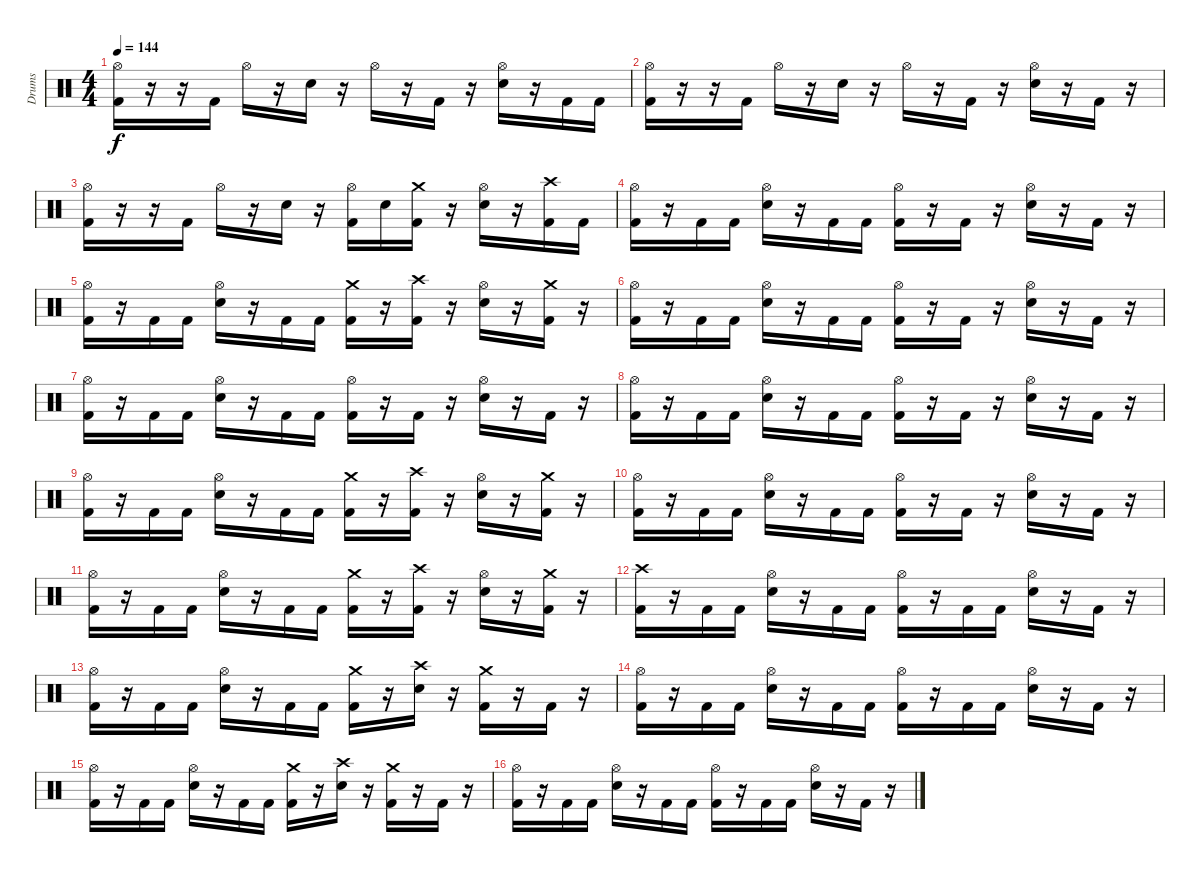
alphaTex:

\track ("Drums" "Drums") {instrument percussion}
\staff {score}
\articulation defaults
\ts (4 4)
\tempo 144
\clef neutral
\ks c
("Hi-Hat (open)" "Kick (hit) 2").16{dy f} r.16 r.16 "Kick (hit) 2".16 "Hi-Hat (open)".16 r.16 "Snare (hit) 2".16 r.16 "Hi-Hat (open)".16 r.16 "Kick (hit) 2".16 r.16 ("Hi-Hat (open)" "Snare (hit) 2").16 r.16 "Kick (hit) 2".16 "Kick (hit) 2".16 |
("Hi-Hat (open)" "Kick (hit) 2").16 r.16 r.16 "Kick (hit) 2".16 "Hi-Hat (open)".16 r.16 "Snare (hit) 2".16 r.16 "Hi-Hat (open)".16 r.16 "Kick (hit) 2".16 r.16 ("Hi-Hat (open)" "Snare (hit) 2").16 r.16 "Kick (hit) 2".16 r.16 |
("Hi-Hat (open)" "Kick (hit) 2").16 r.16 r.16 "Kick (hit) 2".16 "Hi-Hat (open)".16 r.16 "Snare (hit) 2".16 r.16 ("Hi-Hat (open)" "Kick (hit) 2").16 "Snare (hit) 2".16 ("Crash medium (hit)" "Kick (hit) 2").16 r.16 ("Hi-Hat (open)" "Snare (hit) 2").16 r.16 ("Crash high (hit)" "Kick (hit) 2").16 "Kick (hit) 2".16 |
("Hi-Hat (open)" "Kick (hit) 2").16 r.16 "Kick (hit) 2".16 "Kick (hit) 2".16 ("Hi-Hat (open)" "Snare (hit) 2").16 r.16 "Kick (hit) 2".16 "Kick (hit) 2".16 ("Hi-Hat (open)" "Kick (hit) 2").16 r.16 "Kick (hit) 2".16 r.16 ("Hi-Hat (open)" "Snare (hit) 2").16 r.16 "Kick (hit) 2".16 r.16 |
("Hi-Hat (open)" "Kick (hit) 2").16 r.16 "Kick (hit) 2".16 "Kick (hit) 2".16 ("Hi-Hat (open)" "Snare (hit) 2").16 r.16 "Kick (hit) 2".16 "Kick (hit) 2".16 ("Crash medium (hit)" "Kick (hit) 2").16 r.16 ("Crash high (hit)" "Kick (hit) 2").16 r.16 ("Hi-Hat (open)" "Snare (hit) 2").16 r.16 ("Crash medium (hit)" "Kick (hit) 2").16 r.16 |
("Hi-Hat (open)" "Kick (hit) 2").16 r.16 "Kick (hit) 2".16 "Kick (hit) 2".16 ("Hi-Hat (open)" "Snare (hit) 2").16 r.16 "Kick (hit) 2".16 "Kick (hit) 2".16 ("Hi-Hat (open)" "Kick (hit) 2").16 r.16 "Kick (hit) 2".16 r.16 ("Hi-Hat (open)" "Snare (hit) 2").16 r.16 "Kick (hit) 2".16 r.16 |
("Hi-Hat (open)" "Kick (hit) 2").16 r.16 "Kick (hit) 2".16 "Kick (hit) 2".16 ("Hi-Hat (open)" "Snare (hit) 2").16 r.16 "Kick (hit) 2".16 "Kick (hit) 2".16 ("Hi-Hat (open)" "Kick (hit) 2").16 r.16 "Kick (hit) 2".16 r.16 ("Hi-Hat (open)" "Snare (hit) 2").16 r.16 "Kick (hit) 2".16 r.16 |
("Hi-Hat (open)" "Kick (hit) 2").16 r.16 "Kick (hit) 2".16 "Kick (hit) 2".16 ("Hi-Hat (open)" "Snare (hit) 2").16 r.16 "Kick (hit) 2".16 "Kick (hit) 2".16 ("Hi-Hat (open)" "Kick (hit) 2").16 r.16 "Kick (hit) 2".16 r.16 ("Hi-Hat (open)" "Snare (hit) 2").16 r.16 "Kick (hit) 2".16 r.16 |
("Hi-Hat (open)" "Kick (hit) 2").16 r.16 "Kick (hit) 2".16 "Kick (hit) 2".16 ("Hi-Hat (open)" "Snare (hit) 2").16 r.16 "Kick (hit) 2".16 "Kick (hit) 2".16 ("Crash medium (hit)" "Kick (hit) 2").16 r.16 ("Crash high (hit)" "Kick (hit) 2").16 r.16 ("Hi-Hat (open)" "Snare (hit) 2").16 r.16 ("Crash medium (hit)" "Kick (hit) 2").16 r.16 |
("Hi-Hat (open)" "Kick (hit) 2").16 r.16 "Kick (hit) 2".16 "Kick (hit) 2".16 ("Hi-Hat (open)" "Snare (hit) 2").16 r.16 "Kick (hit) 2".16 "Kick (hit) 2".16 ("Hi-Hat (open)" "Kick (hit) 2").16 r.16 "Kick (hit) 2".16 r.16 ("Hi-Hat (open)" "Snare (hit) 2").16 r.16 "Kick (hit) 2".16 r.16 |
("Hi-Hat (open)" "Kick (hit) 2").16 r.16 "Kick (hit) 2".16 "Kick (hit) 2".16 ("Hi-Hat (open)" "Snare (hit) 2").16 r.16 "Kick (hit) 2".16 "Kick (hit) 2".16 ("Crash medium (hit)" "Kick (hit) 2").16 r.16 ("Crash high (hit)" "Kick (hit) 2").16 r.16 ("Hi-Hat (open)" "Snare (hit) 2").16 r.16 ("Crash medium (hit)" "Kick (hit) 2").16 r.16 |
("Crash high (hit)" "Kick (hit) 2").16 r.16 "Kick (hit) 2".16 "Kick (hit) 2".16 ("Hi-Hat (open)" "Snare (hit) 2").16 r.16 "Kick (hit) 2".16 "Kick (hit) 2".16 ("Hi-Hat (open)" "Kick (hit) 2").16 r.16 "Kick (hit) 2".16 "Kick (hit) 2".16 ("Hi-Hat (open)" "Snare (hit) 2").16 r.16 "Kick (hit) 2".16 r.16 |
("Hi-Hat (open)" "Kick (hit) 2").16 r.16 "Kick (hit) 2".16 "Kick (hit) 2".16 ("Hi-Hat (open)" "Snare (hit) 2").16 r.16 "Kick (hit) 2".16 "Kick (hit) 2".16 ("Crash medium (hit)" "Kick (hit) 2").16 r.16 ("Crash high (hit)" "Snare (hit) 2").16 r.16 ("Crash medium (hit)" "Kick (hit) 2").16 r.16 "Kick (hit) 2".16 r.16 |
("Hi-Hat (open)" "Kick (hit) 2").16 r.16 "Kick (hit) 2".16 "Kick (hit) 2".16 ("Hi-Hat (open)" "Snare (hit) 2").16 r.16 "Kick (hit) 2".16 "Kick (hit) 2".16 ("Hi-Hat (open)" "Kick (hit) 2").16 r.16 "Kick (hit) 2".16 "Kick (hit) 2".16 ("Hi-Hat (open)" "Snare (hit) 2").16 r.16 "Kick (hit) 2".16 r.16 |
("Hi-Hat (open)" "Kick (hit) 2").16 r.16 "Kick (hit) 2".16 "Kick (hit) 2".16 ("Hi-Hat (open)" "Snare (hit) 2").16 r.16 "Kick (hit) 2".16 "Kick (hit) 2".16 ("Crash medium (hit)" "Kick (hit) 2").16 r.16 ("Crash high (hit)" "Snare (hit) 2").16 r.16 ("Crash medium (hit)" "Kick (hit) 2").16 r.16 "Kick (hit) 2".16 r.16 |
("Hi-Hat (open)" "Kick (hit) 2").16 r.16 "Kick (hit) 2".16 "Kick (hit) 2".16 ("Hi-Hat (open)" "Snare (hit) 2").16 r.16 "Kick (hit) 2".16 "Kick (hit) 2".16 ("Hi-Hat (open)" "Kick (hit) 2").16 r.16 "Kick (hit) 2".16 "Kick (hit) 2".16 ("Hi-Hat (open)" "Snare (hit) 2").16 r.16 "Kick (hit) 2".16 r.16
